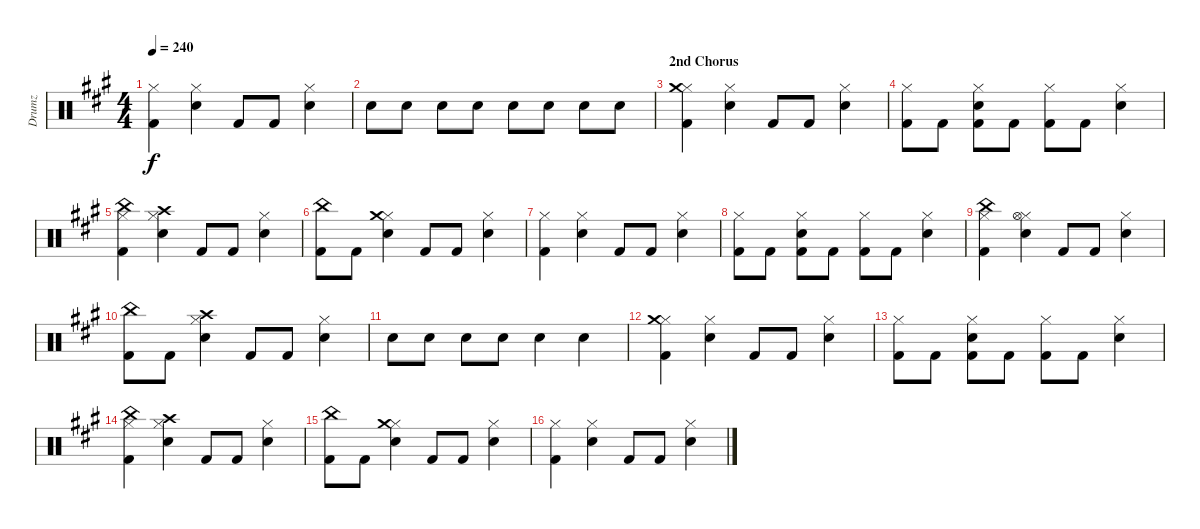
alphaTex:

\track ("Drumz" "Drumz") {instrument percussion}
\staff {score}
\articulation defaults
\ts (4 4)
\tempo 240
\clef neutral
\ks a
("Hi-Hat (closed)" "Kick (hit) 2").4{dy f} ("Hi-Hat (closed)" "Electric Snare (hit)").4 "Kick (hit) 2".8 "Kick (hit) 2".8 ("Electric Snare (hit)" "Hi-Hat (closed)").4 |
"Electric Snare (hit)".8 "Electric Snare (hit)".8 "Electric Snare (hit)".8 "Electric Snare (hit)".8 "Electric Snare (hit)".8 "Electric Snare (hit)".8 "Electric Snare (hit)".8 "Electric Snare (hit)".8 |
\section ("" "2nd Chorus")
("Hi-Hat (closed)" "Crash medium (hit)" "Kick (hit) 2").4 ("Hi-Hat (closed)" "Electric Snare (hit)").4 "Kick (hit) 2".8 "Kick (hit) 2".8 ("Electric Snare (hit)" "Hi-Hat (closed)").4 |
("Hi-Hat (closed)" "Kick (hit) 2").8 "Kick (hit) 2".8 ("Hi-Hat (closed)" "Electric Snare (hit)" "Kick (hit) 2").8 "Kick (hit) 2".8 ("Hi-Hat (closed)" "Kick (hit) 2").8 "Kick (hit) 2".8 ("Hi-Hat (closed)" "Electric Snare (hit)").4 |
("Hi-Hat (closed)" "China (hit)" "Kick (hit) 2").4 ("Hi-Hat (closed)" "Crash high (hit)" "Electric Snare (hit)").4 "Kick (hit) 2".8 "Kick (hit) 2".8 ("Electric Snare (hit)" "Hi-Hat (closed)").4 |
("Kick (hit) 2" "China (hit)").8 "Kick (hit) 2".8 ("Hi-Hat (closed)" "Electric Snare (hit)" "Crash medium (hit)").4 "Kick (hit) 2".8 "Kick (hit) 2".8 ("Electric Snare (hit)" "Hi-Hat (closed)").4 |
("Hi-Hat (closed)" "Kick (hit) 2").4 ("Hi-Hat (closed)" "Electric Snare (hit)").4 "Kick (hit) 2".8 "Kick (hit) 2".8 ("Electric Snare (hit)" "Hi-Hat (closed)").4 |
("Hi-Hat (closed)" "Kick (hit) 2").8 "Kick (hit) 2".8 ("Hi-Hat (closed)" "Electric Snare (hit)" "Kick (hit) 2").8 "Kick (hit) 2".8 ("Hi-Hat (closed)" "Kick (hit) 2").8 "Kick (hit) 2".8 ("Hi-Hat (closed)" "Electric Snare (hit)").4 |
("Hi-Hat (closed)" "China (hit)" "Kick (hit) 2").4 ("Hi-Hat (closed)" "Hi-Hat (open)" "Electric Snare (hit)").4 "Kick (hit) 2".8 "Kick (hit) 2".8 ("Electric Snare (hit)" "Hi-Hat (closed)").4 |
("Kick (hit) 2" "China (hit)").8 "Kick (hit) 2".8 ("Hi-Hat (closed)" "Electric Snare (hit)" "Crash high (hit)").4 "Kick (hit) 2".8 "Kick (hit) 2".8 ("Electric Snare (hit)" "Hi-Hat (closed)").4 |
"Electric Snare (hit)".8 "Electric Snare (hit)".8 "Electric Snare (hit)".8 "Electric Snare (hit)".8 "Electric Snare (hit)".4 "Electric Snare (hit)".4 |
("Hi-Hat (closed)" "Crash medium (hit)" "Kick (hit) 2").4 ("Hi-Hat (closed)" "Electric Snare (hit)").4 "Kick (hit) 2".8 "Kick (hit) 2".8 ("Electric Snare (hit)" "Hi-Hat (closed)").4 |
("Hi-Hat (closed)" "Kick (hit) 2").8 "Kick (hit) 2".8 ("Hi-Hat (closed)" "Electric Snare (hit)" "Kick (hit) 2").8 "Kick (hit) 2".8 ("Hi-Hat (closed)" "Kick (hit) 2").8 "Kick (hit) 2".8 ("Hi-Hat (closed)" "Electric Snare (hit)").4 |
("Hi-Hat (closed)" "China (hit)" "Kick (hit) 2").4 ("Hi-Hat (closed)" "Crash high (hit)" "Electric Snare (hit)").4 "Kick (hit) 2".8 "Kick (hit) 2".8 ("Electric Snare (hit)" "Hi-Hat (closed)").4 |
("Kick (hit) 2" "China (hit)").8 "Kick (hit) 2".8 ("Hi-Hat (closed)" "Electric Snare (hit)" "Crash medium (hit)").4 "Kick (hit) 2".8 "Kick (hit) 2".8 ("Electric Snare (hit)" "Hi-Hat (closed)").4 |
("Hi-Hat (closed)" "Kick (hit) 2").4 ("Hi-Hat (closed)" "Electric Snare (hit)").4 "Kick (hit) 2".8 "Kick (hit) 2".8 ("Electric Snare (hit)" "Hi-Hat (closed)").4
